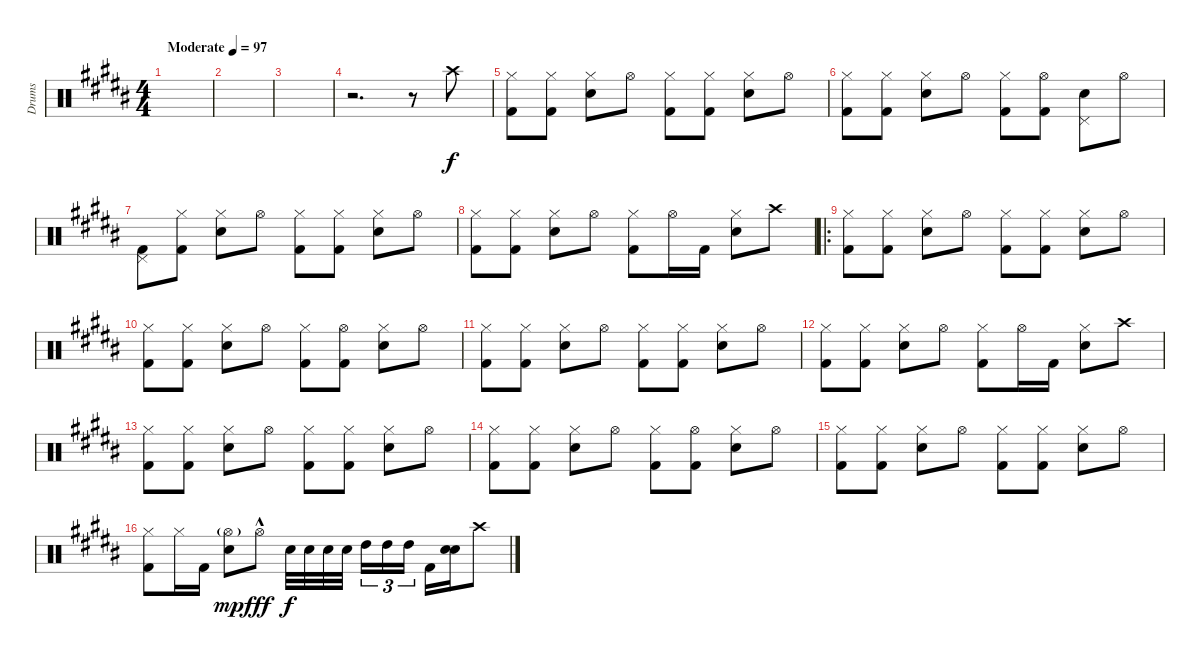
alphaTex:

\track ("Drums" "Drums") {instrument percussion}
\staff {score}
\articulation defaults
\ts (4 4)
\tempo (97 "Moderate")
\clef neutral
\ks b
|
|
|
r.2{d} r.8 "Crash high (hit)".8 |
("Hi-Hat (closed)" "Kick (hit) 2").8 ("Hi-Hat (closed)" "Kick (hit) 2").8 ("Hi-Hat (closed)" "Snare (hit) 2").8 "Hi-Hat (open)".8 ("Hi-Hat (closed)" "Kick (hit) 2").8 ("Hi-Hat (closed)" "Kick (hit) 2").8 ("Hi-Hat (closed)" "Snare (hit) 2").8 "Hi-Hat (open)".8 |
("Hi-Hat (closed)" "Kick (hit) 2").8 ("Hi-Hat (closed)" "Kick (hit) 2").8 ("Hi-Hat (closed)" "Snare (hit) 2").8 "Hi-Hat (open)".8 ("Hi-Hat (closed)" "Kick (hit) 2").8 ("Hi-Hat (open)" "Kick (hit) 2").8 ("Pedal Hi-Hat (hit)" "Snare (hit) 2").8 "Hi-Hat (open)".8 |
("Pedal Hi-Hat (hit)" "Kick (hit) 2").8 ("Hi-Hat (closed)" "Kick (hit) 2").8 ("Hi-Hat (closed)" "Snare (hit) 2").8 "Hi-Hat (open)".8 ("Hi-Hat (closed)" "Kick (hit) 2").8 ("Hi-Hat (closed)" "Kick (hit) 2").8 ("Hi-Hat (closed)" "Snare (hit) 2").8 "Hi-Hat (open)".8 |
("Hi-Hat (closed)" "Kick (hit) 2").8 ("Hi-Hat (closed)" "Kick (hit) 2").8 ("Hi-Hat (closed)" "Snare (hit) 2").8 "Hi-Hat (open)".8 ("Hi-Hat (closed)" "Kick (hit) 2").8 "Hi-Hat (open)".16 "Kick (hit) 2".16 ("Hi-Hat (closed)" "Snare (hit) 2").8 "Crash high (hit)".8 |
\ro
("Hi-Hat (closed)" "Kick (hit) 2").8 ("Hi-Hat (closed)" "Kick (hit) 2").8 ("Hi-Hat (closed)" "Snare (hit) 2").8 "Hi-Hat (open)".8 ("Hi-Hat (closed)" "Kick (hit) 2").8 ("Hi-Hat (closed)" "Kick (hit) 2").8 ("Hi-Hat (closed)" "Snare (hit) 2").8 "Hi-Hat (open)".8 |
("Hi-Hat (closed)" "Kick (hit) 2").8 ("Hi-Hat (closed)" "Kick (hit) 2").8 ("Hi-Hat (closed)" "Snare (hit) 2").8 "Hi-Hat (open)".8 ("Hi-Hat (closed)" "Kick (hit) 2").8 ("Hi-Hat (open)" "Kick (hit) 2").8 ("Hi-Hat (closed)" "Snare (hit) 2").8 "Hi-Hat (open)".8 |
("Hi-Hat (closed)" "Kick (hit) 2").8 ("Hi-Hat (closed)" "Kick (hit) 2").8 ("Hi-Hat (closed)" "Snare (hit) 2").8 "Hi-Hat (open)".8 ("Hi-Hat (closed)" "Kick (hit) 2").8 ("Hi-Hat (closed)" "Kick (hit) 2").8 ("Hi-Hat (closed)" "Snare (hit) 2").8 "Hi-Hat (open)".8 |
("Hi-Hat (closed)" "Kick (hit) 2").8 ("Hi-Hat (closed)" "Kick (hit) 2").8 ("Hi-Hat (closed)" "Snare (hit) 2").8 "Hi-Hat (open)".8 ("Hi-Hat (closed)" "Kick (hit) 2").8 "Hi-Hat (open)".16 "Kick (hit) 2".16 ("Hi-Hat (closed)" "Snare (hit) 2").8 "Crash high (hit)".8 |
("Hi-Hat (closed)" "Kick (hit) 2").8 ("Hi-Hat (closed)" "Kick (hit) 2").8 ("Hi-Hat (closed)" "Snare (hit) 2").8 "Hi-Hat (open)".8 ("Hi-Hat (closed)" "Kick (hit) 2").8 ("Hi-Hat (closed)" "Kick (hit) 2").8 ("Hi-Hat (closed)" "Snare (hit) 2").8 "Hi-Hat (open)".8 |
("Hi-Hat (closed)" "Kick (hit) 2").8 ("Hi-Hat (closed)" "Kick (hit) 2").8 ("Hi-Hat (closed)" "Snare (hit) 2").8 "Hi-Hat (open)".8 ("Hi-Hat (closed)" "Kick (hit) 2").8 ("Hi-Hat (open)" "Kick (hit) 2").8 ("Hi-Hat (closed)" "Snare (hit) 2").8 "Hi-Hat (open)".8 |
("Hi-Hat (closed)" "Kick (hit) 2").8 ("Hi-Hat (closed)" "Kick (hit) 2").8 ("Hi-Hat (closed)" "Snare (hit) 2").8 "Hi-Hat (open)".8 ("Hi-Hat (closed)" "Kick (hit) 2").8 ("Hi-Hat (closed)" "Kick (hit) 2").8 ("Hi-Hat (closed)" "Snare (hit) 2").8 "Hi-Hat (open)".8 |
("Hi-Hat (closed)" "Kick (hit) 2").8 "Hi-Hat (closed)".16 "Kick (hit) 2".16 ("Hi-Hat (open)"{g} "Snare (hit) 2").8{dy mp} "Hi-Hat (open)"{hac}.8{dy fff} "Electric Snare (hit)".32{dy f} "Electric Snare (hit)".32 "Electric Snare (hit)".32 "Electric Snare (hit)".32{beam splitsecondary} "High Tom (hit)".16{tu (3 2)} "High Tom (hit)".16{tu (3 2)} "High Tom (hit)".16{tu (3 2)} "Kick (hit) 2".16 ("Snare (hit) 2" "Snare (hit) 2").16{bd 480} "Crash high (hit)".8
